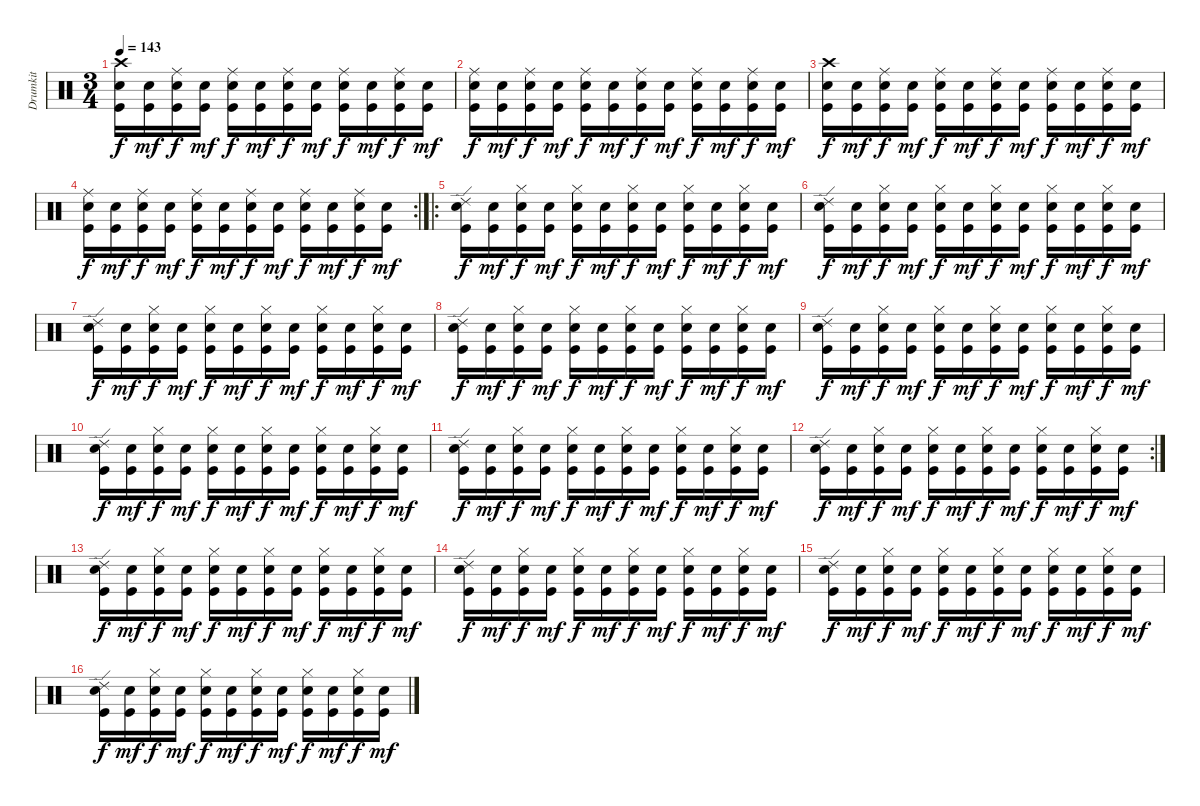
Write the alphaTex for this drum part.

\track ("Drumkit" "Drumkit") {instrument percussion}
\staff {score}
\articulation defaults
\ts (3 4)
\tempo 143
\clef neutral
\ks c
("Kick (hit)" "Snare (hit) 2" "Crash high (hit)").16{dy f} ("Snare (hit) 2" "Kick (hit)").16{dy mf} ("Kick (hit)" "Snare (hit) 2" "Ride (middle)").16{dy f} ("Snare (hit) 2" "Kick (hit)").16{dy mf} ("Kick (hit)" "Snare (hit) 2" "Ride (middle)").16{dy f} ("Snare (hit) 2" "Kick (hit)").16{dy mf} ("Kick (hit)" "Snare (hit) 2" "Ride (middle)").16{dy f} ("Snare (hit) 2" "Kick (hit)").16{dy mf} ("Kick (hit)" "Snare (hit) 2" "Ride (middle)").16{dy f} ("Snare (hit) 2" "Kick (hit)").16{dy mf} ("Kick (hit)" "Snare (hit) 2" "Ride (middle)").16{dy f} ("Snare (hit) 2" "Kick (hit)").16{dy mf} |
("Kick (hit)" "Snare (hit) 2" "Ride (middle)").16{dy f} ("Snare (hit) 2" "Kick (hit)").16{dy mf} ("Kick (hit)" "Snare (hit) 2" "Ride (middle)").16{dy f} ("Snare (hit) 2" "Kick (hit)").16{dy mf} ("Kick (hit)" "Snare (hit) 2" "Ride (middle)").16{dy f} ("Snare (hit) 2" "Kick (hit)").16{dy mf} ("Kick (hit)" "Snare (hit) 2" "Ride (middle)").16{dy f} ("Snare (hit) 2" "Kick (hit)").16{dy mf} ("Kick (hit)" "Snare (hit) 2" "Ride (middle)").16{dy f} ("Snare (hit) 2" "Kick (hit)").16{dy mf} ("Kick (hit)" "Snare (hit) 2" "Ride (middle)").16{dy f} ("Snare (hit) 2" "Kick (hit)").16{dy mf} |
("Kick (hit)" "Snare (hit) 2" "Crash high (hit)").16{dy f} ("Snare (hit) 2" "Kick (hit)").16{dy mf} ("Kick (hit)" "Snare (hit) 2" "Ride (middle)").16{dy f} ("Snare (hit) 2" "Kick (hit)").16{dy mf} ("Kick (hit)" "Snare (hit) 2" "Ride (middle)").16{dy f} ("Snare (hit) 2" "Kick (hit)").16{dy mf} ("Kick (hit)" "Snare (hit) 2" "Ride (middle)").16{dy f} ("Snare (hit) 2" "Kick (hit)").16{dy mf} ("Kick (hit)" "Snare (hit) 2" "Ride (middle)").16{dy f} ("Snare (hit) 2" "Kick (hit)").16{dy mf} ("Kick (hit)" "Snare (hit) 2" "Ride (middle)").16{dy f} ("Snare (hit) 2" "Kick (hit)").16{dy mf} |
\rc 2
("Kick (hit)" "Snare (hit) 2" "Ride (middle)").16{dy f} ("Snare (hit) 2" "Kick (hit)").16{dy mf} ("Kick (hit)" "Snare (hit) 2" "Ride (middle)").16{dy f} ("Snare (hit) 2" "Kick (hit)").16{dy mf} ("Kick (hit)" "Snare (hit) 2" "Ride (middle)").16{dy f} ("Snare (hit) 2" "Kick (hit)").16{dy mf} ("Kick (hit)" "Snare (hit) 2" "Ride (middle)").16{dy f} ("Snare (hit) 2" "Kick (hit)").16{dy mf} ("Kick (hit)" "Snare (hit) 2" "Ride (middle)").16{dy f} ("Snare (hit) 2" "Kick (hit)").16{dy mf} ("Kick (hit)" "Snare (hit) 2" "Ride (middle)").16{dy f} ("Snare (hit) 2" "Kick (hit)").16{dy mf} |
\ro
("Kick (hit)" "Snare (hit) 2" "Ride (edge) 2").16{dy f} ("Snare (hit) 2" "Kick (hit)").16{dy mf} ("Kick (hit)" "Snare (hit) 2" "Hi-Hat (closed)").16{dy f} ("Snare (hit) 2" "Kick (hit)").16{dy mf} ("Kick (hit)" "Snare (hit) 2" "Hi-Hat (closed)").16{dy f} ("Snare (hit) 2" "Kick (hit)").16{dy mf} ("Kick (hit)" "Snare (hit) 2" "Hi-Hat (closed)").16{dy f} ("Snare (hit) 2" "Kick (hit)").16{dy mf} ("Kick (hit)" "Snare (hit) 2" "Hi-Hat (closed)").16{dy f} ("Snare (hit) 2" "Kick (hit)").16{dy mf} ("Kick (hit)" "Snare (hit) 2" "Hi-Hat (closed)").16{dy f} ("Snare (hit) 2" "Kick (hit)").16{dy mf} |
("Kick (hit)" "Snare (hit) 2" "Ride (edge) 2").16{dy f} ("Snare (hit) 2" "Kick (hit)").16{dy mf} ("Kick (hit)" "Snare (hit) 2" "Hi-Hat (closed)").16{dy f} ("Snare (hit) 2" "Kick (hit)").16{dy mf} ("Kick (hit)" "Snare (hit) 2" "Hi-Hat (closed)").16{dy f} ("Snare (hit) 2" "Kick (hit)").16{dy mf} ("Kick (hit)" "Snare (hit) 2" "Hi-Hat (closed)").16{dy f} ("Snare (hit) 2" "Kick (hit)").16{dy mf} ("Kick (hit)" "Snare (hit) 2" "Hi-Hat (closed)").16{dy f} ("Snare (hit) 2" "Kick (hit)").16{dy mf} ("Kick (hit)" "Snare (hit) 2" "Hi-Hat (closed)").16{dy f} ("Snare (hit) 2" "Kick (hit)").16{dy mf} |
("Kick (hit)" "Snare (hit) 2" "Ride (edge) 2").16{dy f} ("Snare (hit) 2" "Kick (hit)").16{dy mf} ("Kick (hit)" "Snare (hit) 2" "Hi-Hat (closed)").16{dy f} ("Snare (hit) 2" "Kick (hit)").16{dy mf} ("Kick (hit)" "Snare (hit) 2" "Hi-Hat (closed)").16{dy f} ("Snare (hit) 2" "Kick (hit)").16{dy mf} ("Kick (hit)" "Snare (hit) 2" "Hi-Hat (closed)").16{dy f} ("Snare (hit) 2" "Kick (hit)").16{dy mf} ("Kick (hit)" "Snare (hit) 2" "Hi-Hat (closed)").16{dy f} ("Snare (hit) 2" "Kick (hit)").16{dy mf} ("Kick (hit)" "Snare (hit) 2" "Hi-Hat (closed)").16{dy f} ("Snare (hit) 2" "Kick (hit)").16{dy mf} |
("Kick (hit)" "Snare (hit) 2" "Ride (edge) 2").16{dy f} ("Snare (hit) 2" "Kick (hit)").16{dy mf} ("Kick (hit)" "Snare (hit) 2" "Hi-Hat (closed)").16{dy f} ("Snare (hit) 2" "Kick (hit)").16{dy mf} ("Kick (hit)" "Snare (hit) 2" "Hi-Hat (closed)").16{dy f} ("Snare (hit) 2" "Kick (hit)").16{dy mf} ("Kick (hit)" "Snare (hit) 2" "Hi-Hat (closed)").16{dy f} ("Snare (hit) 2" "Kick (hit)").16{dy mf} ("Kick (hit)" "Snare (hit) 2" "Hi-Hat (closed)").16{dy f} ("Snare (hit) 2" "Kick (hit)").16{dy mf} ("Kick (hit)" "Snare (hit) 2" "Hi-Hat (closed)").16{dy f} ("Snare (hit) 2" "Kick (hit)").16{dy mf} |
("Kick (hit)" "Snare (hit) 2" "Ride (edge) 2").16{dy f} ("Snare (hit) 2" "Kick (hit)").16{dy mf} ("Kick (hit)" "Snare (hit) 2" "Hi-Hat (closed)").16{dy f} ("Snare (hit) 2" "Kick (hit)").16{dy mf} ("Kick (hit)" "Snare (hit) 2" "Hi-Hat (closed)").16{dy f} ("Snare (hit) 2" "Kick (hit)").16{dy mf} ("Kick (hit)" "Snare (hit) 2" "Hi-Hat (closed)").16{dy f} ("Snare (hit) 2" "Kick (hit)").16{dy mf} ("Kick (hit)" "Snare (hit) 2" "Hi-Hat (closed)").16{dy f} ("Snare (hit) 2" "Kick (hit)").16{dy mf} ("Kick (hit)" "Snare (hit) 2" "Hi-Hat (closed)").16{dy f} ("Snare (hit) 2" "Kick (hit)").16{dy mf} |
("Kick (hit)" "Snare (hit) 2" "Ride (edge) 2").16{dy f} ("Snare (hit) 2" "Kick (hit)").16{dy mf} ("Kick (hit)" "Snare (hit) 2" "Hi-Hat (closed)").16{dy f} ("Snare (hit) 2" "Kick (hit)").16{dy mf} ("Kick (hit)" "Snare (hit) 2" "Hi-Hat (closed)").16{dy f} ("Snare (hit) 2" "Kick (hit)").16{dy mf} ("Kick (hit)" "Snare (hit) 2" "Hi-Hat (closed)").16{dy f} ("Snare (hit) 2" "Kick (hit)").16{dy mf} ("Kick (hit)" "Snare (hit) 2" "Hi-Hat (closed)").16{dy f} ("Snare (hit) 2" "Kick (hit)").16{dy mf} ("Kick (hit)" "Snare (hit) 2" "Hi-Hat (closed)").16{dy f} ("Snare (hit) 2" "Kick (hit)").16{dy mf} |
("Kick (hit)" "Snare (hit) 2" "Ride (edge) 2").16{dy f} ("Snare (hit) 2" "Kick (hit)").16{dy mf} ("Kick (hit)" "Snare (hit) 2" "Hi-Hat (closed)").16{dy f} ("Snare (hit) 2" "Kick (hit)").16{dy mf} ("Kick (hit)" "Snare (hit) 2" "Hi-Hat (closed)").16{dy f} ("Snare (hit) 2" "Kick (hit)").16{dy mf} ("Kick (hit)" "Snare (hit) 2" "Hi-Hat (closed)").16{dy f} ("Snare (hit) 2" "Kick (hit)").16{dy mf} ("Kick (hit)" "Snare (hit) 2" "Hi-Hat (closed)").16{dy f} ("Snare (hit) 2" "Kick (hit)").16{dy mf} ("Kick (hit)" "Snare (hit) 2" "Hi-Hat (closed)").16{dy f} ("Snare (hit) 2" "Kick (hit)").16{dy mf} |
\rc 2
("Kick (hit)" "Snare (hit) 2" "Ride (edge) 2").16{dy f} ("Snare (hit) 2" "Kick (hit)").16{dy mf} ("Kick (hit)" "Snare (hit) 2" "Hi-Hat (closed)").16{dy f} ("Snare (hit) 2" "Kick (hit)").16{dy mf} ("Kick (hit)" "Snare (hit) 2" "Hi-Hat (closed)").16{dy f} ("Snare (hit) 2" "Kick (hit)").16{dy mf} ("Kick (hit)" "Snare (hit) 2" "Hi-Hat (closed)").16{dy f} ("Snare (hit) 2" "Kick (hit)").16{dy mf} ("Kick (hit)" "Snare (hit) 2" "Hi-Hat (closed)").16{dy f} ("Snare (hit) 2" "Kick (hit)").16{dy mf} ("Kick (hit)" "Snare (hit) 2" "Hi-Hat (closed)").16{dy f} ("Snare (hit) 2" "Kick (hit)").16{dy mf} |
("Kick (hit)" "Snare (hit) 2" "Ride (edge) 2").16{dy f} ("Snare (hit) 2" "Kick (hit)").16{dy mf} ("Kick (hit)" "Snare (hit) 2" "Hi-Hat (closed)").16{dy f} ("Snare (hit) 2" "Kick (hit)").16{dy mf} ("Kick (hit)" "Snare (hit) 2" "Hi-Hat (closed)").16{dy f} ("Snare (hit) 2" "Kick (hit)").16{dy mf} ("Kick (hit)" "Snare (hit) 2" "Hi-Hat (closed)").16{dy f} ("Snare (hit) 2" "Kick (hit)").16{dy mf} ("Kick (hit)" "Snare (hit) 2" "Hi-Hat (closed)").16{dy f} ("Snare (hit) 2" "Kick (hit)").16{dy mf} ("Kick (hit)" "Snare (hit) 2" "Hi-Hat (closed)").16{dy f} ("Snare (hit) 2" "Kick (hit)").16{dy mf} |
("Kick (hit)" "Snare (hit) 2" "Ride (edge) 2").16{dy f} ("Snare (hit) 2" "Kick (hit)").16{dy mf} ("Kick (hit)" "Snare (hit) 2" "Hi-Hat (closed)").16{dy f} ("Snare (hit) 2" "Kick (hit)").16{dy mf} ("Kick (hit)" "Snare (hit) 2" "Hi-Hat (closed)").16{dy f} ("Snare (hit) 2" "Kick (hit)").16{dy mf} ("Kick (hit)" "Snare (hit) 2" "Hi-Hat (closed)").16{dy f} ("Snare (hit) 2" "Kick (hit)").16{dy mf} ("Kick (hit)" "Snare (hit) 2" "Hi-Hat (closed)").16{dy f} ("Snare (hit) 2" "Kick (hit)").16{dy mf} ("Kick (hit)" "Snare (hit) 2" "Hi-Hat (closed)").16{dy f} ("Snare (hit) 2" "Kick (hit)").16{dy mf} |
("Kick (hit)" "Snare (hit) 2" "Ride (edge) 2").16{dy f} ("Snare (hit) 2" "Kick (hit)").16{dy mf} ("Kick (hit)" "Snare (hit) 2" "Hi-Hat (closed)").16{dy f} ("Snare (hit) 2" "Kick (hit)").16{dy mf} ("Kick (hit)" "Snare (hit) 2" "Hi-Hat (closed)").16{dy f} ("Snare (hit) 2" "Kick (hit)").16{dy mf} ("Kick (hit)" "Snare (hit) 2" "Hi-Hat (closed)").16{dy f} ("Snare (hit) 2" "Kick (hit)").16{dy mf} ("Kick (hit)" "Snare (hit) 2" "Hi-Hat (closed)").16{dy f} ("Snare (hit) 2" "Kick (hit)").16{dy mf} ("Kick (hit)" "Snare (hit) 2" "Hi-Hat (closed)").16{dy f} ("Snare (hit) 2" "Kick (hit)").16{dy mf} |
("Kick (hit)" "Snare (hit) 2" "Ride (edge) 2").16{dy f} ("Snare (hit) 2" "Kick (hit)").16{dy mf} ("Kick (hit)" "Snare (hit) 2" "Hi-Hat (closed)").16{dy f} ("Snare (hit) 2" "Kick (hit)").16{dy mf} ("Kick (hit)" "Snare (hit) 2" "Hi-Hat (closed)").16{dy f} ("Snare (hit) 2" "Kick (hit)").16{dy mf} ("Kick (hit)" "Snare (hit) 2" "Hi-Hat (closed)").16{dy f} ("Snare (hit) 2" "Kick (hit)").16{dy mf} ("Kick (hit)" "Snare (hit) 2" "Hi-Hat (closed)").16{dy f} ("Snare (hit) 2" "Kick (hit)").16{dy mf} ("Kick (hit)" "Snare (hit) 2" "Hi-Hat (closed)").16{dy f} ("Snare (hit) 2" "Kick (hit)").16{dy mf}
